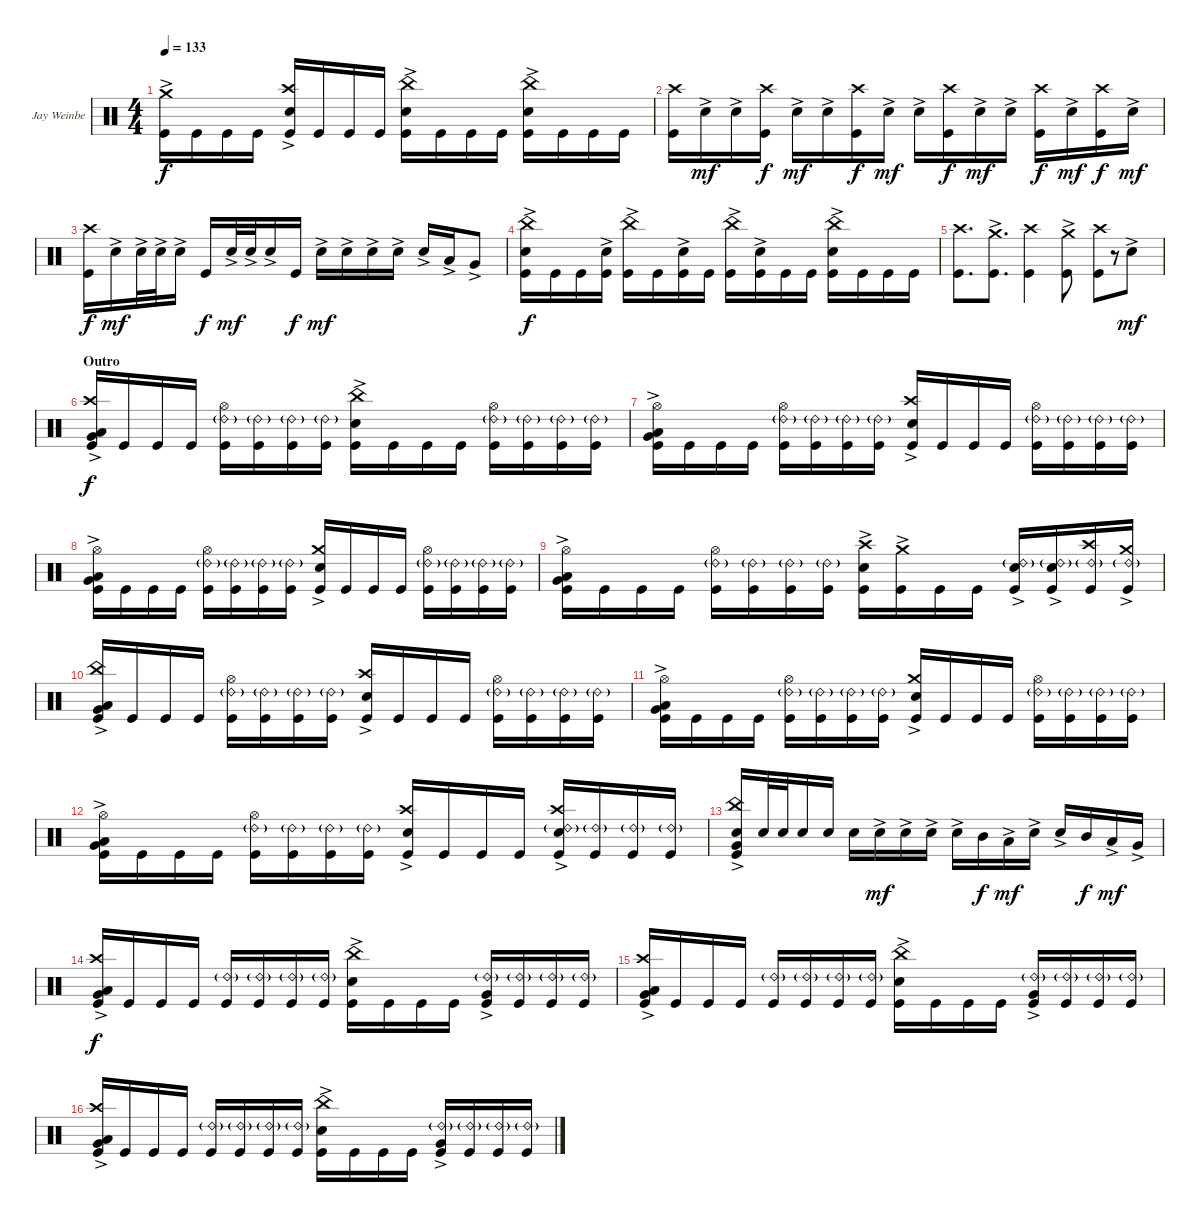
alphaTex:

\bracketExtendMode groupsimilarinstruments
\firstSystemTrackNameOrientation horizontal
\otherSystemsTrackNameOrientation horizontal
\track ("Jay Weinberg" "Jay Weinbe") {instrument percussion}
\staff {score}
\articulation defaults
\ts (4 4)
\tempo 133
\clef neutral
\ks c
("Kick (hit)" "Crash medium (hit)"{ac}).16{dy f} "Kick (hit)".16 "Kick (hit)".16 "Kick (hit)".16 ("Kick (hit)" "Crash high (hit)" "Snare (hit) 2"{ac}).16 "Kick (hit)".16 "Kick (hit)".16 "Kick (hit)".16 ("Kick (hit)" "Snare (hit) 2"{ac} "China (hit)"{ac}).16 "Kick (hit)".16 "Kick (hit)".16 "Kick (hit)".16 ("Kick (hit)" "Snare (hit) 2"{ac} "China (hit)"{ac}).16 "Kick (hit)".16 "Kick (hit)".16 "Kick (hit)".16 |
("Kick (hit)" "Crash high (hit)").16 "Snare (hit) 2"{ac}.16{dy mf} "Snare (hit) 2"{ac}.16 ("Kick (hit)" "Crash high (hit)").16{dy f} "Snare (hit) 2"{ac}.16{dy mf} "Snare (hit) 2"{ac}.16 ("Kick (hit)" "Crash high (hit)").16{dy f} "Snare (hit) 2"{ac}.16{dy mf} "Snare (hit) 2"{ac}.16 ("Kick (hit)" "Crash high (hit)").16{dy f} "Snare (hit) 2"{ac}.16{dy mf} "Snare (hit) 2"{ac}.16 ("Kick (hit)" "Crash high (hit)").16{dy f} "Snare (hit) 2"{ac}.16{dy mf} ("Kick (hit)" "Crash high (hit)").16{dy f} "Snare (hit) 2"{ac}.16{dy mf} |
("Kick (hit)" "Crash high (hit)").16{dy f} "Snare (hit) 2"{ac}.16{dy mf} "Snare (hit) 2"{ac}.32 "Snare (hit) 2"{ac}.32 "Snare (hit) 2"{ac}.16 "Kick (hit)".16{dy f} "Snare (hit) 2"{ac}.32{dy mf} "Snare (hit) 2"{ac}.32 "Snare (hit) 2"{ac}.16 "Kick (hit)".16{dy f} "Snare (hit) 2"{ac}.16{dy mf} "Snare (hit) 2"{ac}.16 "Snare (hit) 2"{ac}.16 "Snare (hit) 2"{ac}.16 "Snare (hit) 2"{ac}.16 "Low Tom (hit)"{ac}.16 "Very Low Tom (hit)"{ac}.8 |
("Kick (hit)" "China (hit)"{ac} "Snare (hit) 2"{ac}).16{dy f} "Kick (hit)".16 "Kick (hit)".16 ("Kick (hit)" "Snare (hit) 2"{ac}).16 ("Kick (hit)" "China (hit)"{ac}).16 "Kick (hit)".16 ("Kick (hit)" "Snare (hit) 2"{ac}).16 "Kick (hit)".16 ("Kick (hit)" "China (hit)"{ac}).16 ("Kick (hit)" "Snare (hit) 2"{ac}).16 "Kick (hit)".16 "Kick (hit)".16 ("Kick (hit)" "China (hit)"{ac} "Snare (hit) 2"{ac}).16 "Kick (hit)".16 "Kick (hit)".16 "Kick (hit)".16 |
("Kick (hit)" "Crash high (hit)").8{d} ("Kick (hit)" "Crash medium (hit)"{ac}).8{d} ("Kick (hit)" "Crash high (hit)").4 ("Kick (hit)" "Crash medium (hit)"{ac}).8 ("Kick (hit)" "Crash high (hit)").8 r.8{gr} "Snare (hit) 2"{ac}.8{dy mf} |
\section ("" "Outro")
("Kick (hit)" "Very Low Tom (hit)"{ac} "Low Tom (hit)"{ac} "Crash high (hit)").16{dy f} "Kick (hit)".16 "Kick (hit)".16 "Kick (hit)".16 ("Kick (hit)" "Ride (bell) 2"{g} "Hi-Hat (open)").16 ("Kick (hit)" "Ride (bell) 2"{g}).16 ("Kick (hit)" "Ride (bell) 2"{g}).16 ("Kick (hit)" "Ride (bell) 2"{g}).16 ("Kick (hit)" "China (hit)"{ac} "Snare (hit) 2"{ac}).16 "Kick (hit)".16 "Kick (hit)".16 "Kick (hit)".16 ("Kick (hit)" "Ride (bell) 2"{g} "Hi-Hat (open)").16 ("Kick (hit)" "Ride (bell) 2"{g}).16 ("Kick (hit)" "Ride (bell) 2"{g}).16 ("Kick (hit)" "Ride (bell) 2"{g}).16 |
("Kick (hit)" "Very Low Tom (hit)"{ac} "Low Tom (hit)"{ac} "Hi-Hat (open)").16 "Kick (hit)".16 "Kick (hit)".16 "Kick (hit)".16 ("Kick (hit)" "Ride (bell) 2"{g} "Hi-Hat (open)").16 ("Kick (hit)" "Ride (bell) 2"{g}).16 ("Kick (hit)" "Ride (bell) 2"{g}).16 ("Kick (hit)" "Ride (bell) 2"{g}).16 ("Kick (hit)" "Snare (hit) 2"{ac} "Crash high (hit)").16 "Kick (hit)".16 "Kick (hit)".16 "Kick (hit)".16 ("Kick (hit)" "Ride (bell) 2"{g} "Hi-Hat (open)").16 ("Kick (hit)" "Ride (bell) 2"{g}).16 ("Kick (hit)" "Ride (bell) 2"{g}).16 ("Kick (hit)" "Ride (bell) 2"{g}).16 |
("Kick (hit)" "Very Low Tom (hit)"{ac} "Low Tom (hit)"{ac} "Hi-Hat (open)").16 "Kick (hit)".16 "Kick (hit)".16 "Kick (hit)".16 ("Kick (hit)" "Ride (bell) 2"{g} "Hi-Hat (open)").16 ("Kick (hit)" "Ride (bell) 2"{g}).16 ("Kick (hit)" "Ride (bell) 2"{g}).16 ("Kick (hit)" "Ride (bell) 2"{g}).16 ("Kick (hit)" "Snare (hit) 2"{ac} "Crash medium (hit)"{ac}).16 "Kick (hit)".16 "Kick (hit)".16 "Kick (hit)".16 ("Kick (hit)" "Ride (bell) 2"{g} "Hi-Hat (open)").16 ("Kick (hit)" "Ride (bell) 2"{g}).16 ("Kick (hit)" "Ride (bell) 2"{g}).16 ("Kick (hit)" "Ride (bell) 2"{g}).16 |
("Kick (hit)" "Very Low Tom (hit)"{ac} "Low Tom (hit)"{ac} "Hi-Hat (open)").16 "Kick (hit)".16 "Kick (hit)".16 "Kick (hit)".16 ("Kick (hit)" "Ride (bell) 2"{g} "Hi-Hat (open)").16 ("Kick (hit)" "Ride (bell) 2"{g}).16 ("Kick (hit)" "Ride (bell) 2"{g}).16 ("Kick (hit)" "Ride (bell) 2"{g}).16 ("Kick (hit)" "Snare (hit) 2"{ac} "Crash high (hit)").16 ("Kick (hit)" "Crash medium (hit)"{ac}).16 "Kick (hit)".16 "Kick (hit)".16 ("Kick (hit)" "Snare (hit) 2"{ac} "Ride (bell) 2"{g}).16 ("Kick (hit)" "Snare (hit) 2"{ac} "Ride (bell) 2"{g}).16 ("Kick (hit)" "Crash high (hit)" "Ride (bell) 2"{g}).16 ("Kick (hit)" "Crash medium (hit)"{ac} "Ride (bell) 2"{g}).16 |
("Kick (hit)" "Very Low Tom (hit)"{ac} "Low Tom (hit)"{ac} "China (hit)"{ac}).16 "Kick (hit)".16 "Kick (hit)".16 "Kick (hit)".16 ("Kick (hit)" "Ride (bell) 2"{g} "Hi-Hat (open)").16 ("Kick (hit)" "Ride (bell) 2"{g}).16 ("Kick (hit)" "Ride (bell) 2"{g}).16 ("Kick (hit)" "Ride (bell) 2"{g}).16 ("Kick (hit)" "Snare (hit) 2"{ac} "Crash high (hit)").16 "Kick (hit)".16 "Kick (hit)".16 "Kick (hit)".16 ("Kick (hit)" "Ride (bell) 2"{g} "Hi-Hat (open)").16 ("Kick (hit)" "Ride (bell) 2"{g}).16 ("Kick (hit)" "Ride (bell) 2"{g}).16 ("Kick (hit)" "Ride (bell) 2"{g}).16 |
("Kick (hit)" "Very Low Tom (hit)"{ac} "Low Tom (hit)"{ac} "Hi-Hat (open)").16 "Kick (hit)".16 "Kick (hit)".16 "Kick (hit)".16 ("Kick (hit)" "Ride (bell) 2"{g} "Hi-Hat (open)").16 ("Kick (hit)" "Ride (bell) 2"{g}).16 ("Kick (hit)" "Ride (bell) 2"{g}).16 ("Kick (hit)" "Ride (bell) 2"{g}).16 ("Kick (hit)" "Snare (hit) 2"{ac} "Crash medium (hit)"{ac}).16 "Kick (hit)".16 "Kick (hit)".16 "Kick (hit)".16 ("Kick (hit)" "Ride (bell) 2"{g} "Hi-Hat (open)").16 ("Kick (hit)" "Ride (bell) 2"{g}).16 ("Kick (hit)" "Ride (bell) 2"{g}).16 ("Kick (hit)" "Ride (bell) 2"{g}).16 |
("Kick (hit)" "Very Low Tom (hit)"{ac} "Low Tom (hit)"{ac} "Hi-Hat (open)").16 "Kick (hit)".16 "Kick (hit)".16 "Kick (hit)".16 ("Kick (hit)" "Ride (bell) 2"{g} "Hi-Hat (open)").16 ("Kick (hit)" "Ride (bell) 2"{g}).16 ("Kick (hit)" "Ride (bell) 2"{g}).16 ("Kick (hit)" "Ride (bell) 2"{g}).16 ("Kick (hit)" "Snare (hit) 2"{ac} "Crash high (hit)").16 "Kick (hit)".16 "Kick (hit)".16 "Kick (hit)".16 ("Kick (hit)" "Ride (bell) 2"{g} "Crash high (hit)"{ac} "Snare (hit) 2"{ac}).16 ("Kick (hit)" "Ride (bell) 2"{g}).16 ("Kick (hit)" "Ride (bell) 2"{g}).16 ("Kick (hit)" "Ride (bell) 2"{g}).16 |
("Snare (hit) 2"{ac} "China (hit)"{ac} "Kick (hit)" "Very Low Tom (hit)"{ac}).16 "Snare (hit) 2".32 "Snare (hit) 2".32 "Snare (hit) 2".16 "Snare (hit) 2".16 "Snare (hit) 2".16 "Snare (hit) 2"{ac}.16{dy mf} "Snare (hit) 2"{ac}.16 "Snare (hit) 2"{ac}.16 "Snare (hit) 2"{ac}.16 "Mid Tom (hit)".16{dy f} "Low Tom (hit)"{ac}.16{dy mf} "Snare (hit) 2"{ac}.16 "Snare (hit) 2"{ac}.16 "Mid Tom (hit)".16{dy f} "Low Tom (hit)"{ac}.16{dy mf} "Very Low Tom (hit)"{ac}.16 |
("Kick (hit)" "Crash high (hit)" "Very Low Tom (hit)"{ac} "Low Tom (hit)"{ac}).16{dy f} "Kick (hit)".16 "Kick (hit)".16 "Kick (hit)".16 ("Kick (hit)" "Ride (bell) 2"{g}).16 ("Kick (hit)" "Ride (bell) 2"{g}).16 ("Kick (hit)" "Ride (bell) 2"{g}).16 ("Kick (hit)" "Ride (bell) 2"{g}).16 ("Kick (hit)" "Snare (hit) 2"{ac} "China (hit)"{ac}).16 "Kick (hit)".16 "Kick (hit)".16 "Kick (hit)".16 ("Kick (hit)" "Ride (bell) 2"{g} "Very Low Tom (hit)"{ac}).16 ("Kick (hit)" "Ride (bell) 2"{g}).16 ("Kick (hit)" "Ride (bell) 2"{g}).16 ("Kick (hit)" "Ride (bell) 2"{g}).16 |
("Kick (hit)" "Crash high (hit)" "Very Low Tom (hit)"{ac} "Low Tom (hit)"{ac}).16 "Kick (hit)".16 "Kick (hit)".16 "Kick (hit)".16 ("Kick (hit)" "Ride (bell) 2"{g}).16 ("Kick (hit)" "Ride (bell) 2"{g}).16 ("Kick (hit)" "Ride (bell) 2"{g}).16 ("Kick (hit)" "Ride (bell) 2"{g}).16 ("Kick (hit)" "Snare (hit) 2"{ac} "China (hit)"{ac}).16 "Kick (hit)".16 "Kick (hit)".16 "Kick (hit)".16 ("Kick (hit)" "Ride (bell) 2"{g} "Very Low Tom (hit)"{ac}).16 ("Kick (hit)" "Ride (bell) 2"{g}).16 ("Kick (hit)" "Ride (bell) 2"{g}).16 ("Kick (hit)" "Ride (bell) 2"{g}).16 |
("Kick (hit)" "Crash high (hit)" "Very Low Tom (hit)"{ac} "Low Tom (hit)"{ac}).16 "Kick (hit)".16 "Kick (hit)".16 "Kick (hit)".16 ("Kick (hit)" "Ride (bell) 2"{g}).16 ("Kick (hit)" "Ride (bell) 2"{g}).16 ("Kick (hit)" "Ride (bell) 2"{g}).16 ("Kick (hit)" "Ride (bell) 2"{g}).16 ("Kick (hit)" "Snare (hit) 2"{ac} "China (hit)"{ac}).16 "Kick (hit)".16 "Kick (hit)".16 "Kick (hit)".16 ("Kick (hit)" "Ride (bell) 2"{g} "Very Low Tom (hit)"{ac}).16 ("Kick (hit)" "Ride (bell) 2"{g}).16 ("Kick (hit)" "Ride (bell) 2"{g}).16 ("Kick (hit)" "Ride (bell) 2"{g}).16
